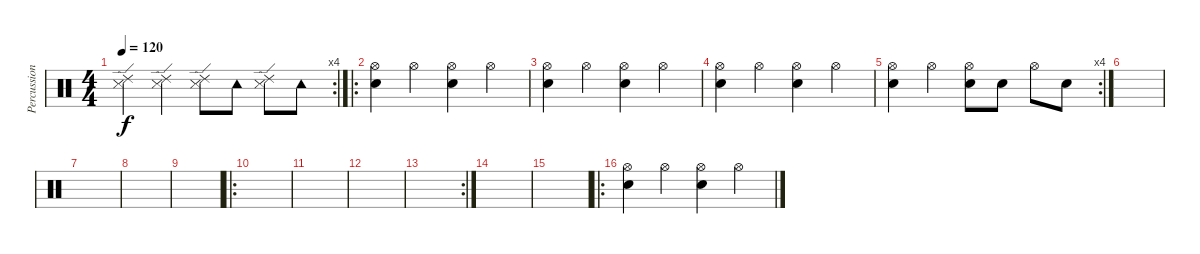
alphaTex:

\track ("Percussion" "Percussion") {instrument percussion}
\staff {score}
\articulation defaults
\rc 4
\ts (4 4)
\tempo 120
\clef neutral
\ks c
("Ride (edge) 2" "Snare (side stick) 3").4{dy f} ("Ride (edge) 2" "Snare (side stick) 3").4 ("Ride (edge) 2" "Snare (side stick) 3").8 "Tambourine (hit)".8 ("Ride (edge) 2" "Snare (side stick) 3").8 "Tambourine (hit)".8 |
\ro
("Hi-Hat (open)" "Snare (hit) 2").4{volume 12} "Hi-Hat (open)".4 ("Hi-Hat (open)" "Snare (hit) 2").4 "Hi-Hat (open)".4 |
("Hi-Hat (open)" "Snare (hit) 2").4{volume 12} "Hi-Hat (open)".4 ("Hi-Hat (open)" "Snare (hit) 2").4 "Hi-Hat (open)".4 |
("Hi-Hat (open)" "Snare (hit) 2").4{volume 12} "Hi-Hat (open)".4 ("Hi-Hat (open)" "Snare (hit) 2").4 "Hi-Hat (open)".4 |
\rc 4
("Hi-Hat (open)" "Snare (hit) 2").4{volume 12} "Hi-Hat (open)".4 ("Hi-Hat (open)" "Snare (hit) 2").8 "Snare (hit) 2".8 "Hi-Hat (open)".8 "Snare (hit) 2".8 |
|
|
|
|
\ro
|
|
|
\rc 2
|
|
|
\ro
("Hi-Hat (open)" "Snare (hit) 2").4{volume 12} "Hi-Hat (open)".4 ("Hi-Hat (open)" "Snare (hit) 2").4 "Hi-Hat (open)".4
